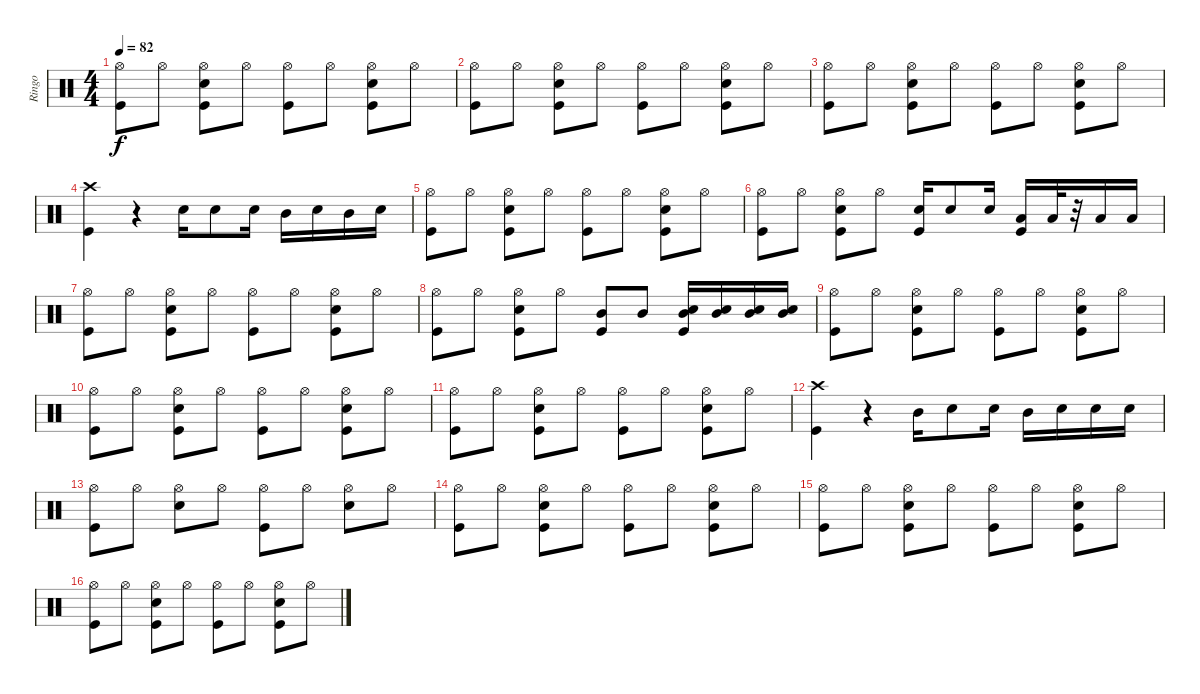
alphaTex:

\track ("Ringo" "Ringo") {instrument percussion}
\staff {score}
\articulation defaults
\ts (4 4)
\tempo 82
\clef neutral
\ks c
("Hi-Hat (open)" "Kick (hit)").8{dy f} "Hi-Hat (open)".8 ("Electric Snare (hit)" "Hi-Hat (open)" "Kick (hit)").8 "Hi-Hat (open)".8 ("Hi-Hat (open)" "Kick (hit)").8 "Hi-Hat (open)".8 ("Hi-Hat (open)" "Electric Snare (hit)" "Kick (hit)").8 "Hi-Hat (open)".8 |
("Hi-Hat (open)" "Kick (hit)").8 "Hi-Hat (open)".8 ("Electric Snare (hit)" "Hi-Hat (open)" "Kick (hit)").8 "Hi-Hat (open)".8 ("Hi-Hat (open)" "Kick (hit)").8 "Hi-Hat (open)".8 ("Hi-Hat (open)" "Electric Snare (hit)" "Kick (hit)").8 "Hi-Hat (open)".8 |
("Hi-Hat (open)" "Kick (hit)").8 "Hi-Hat (open)".8 ("Electric Snare (hit)" "Hi-Hat (open)" "Kick (hit)").8 "Hi-Hat (open)".8 ("Hi-Hat (open)" "Kick (hit)").8 "Hi-Hat (open)".8 ("Hi-Hat (open)" "Electric Snare (hit)" "Kick (hit)").8 "Hi-Hat (open)".8 |
("Crash high (hit)" "Kick (hit)").4 r.4 "Electric Snare (hit)".16 "Electric Snare (hit)".8 "Electric Snare (hit)".16 "Mid Tom (hit)".16 "Electric Snare (hit)".16 "Mid Tom (hit)".16 "Electric Snare (hit)".16 |
("Hi-Hat (open)" "Kick (hit)").8 "Hi-Hat (open)".8 ("Electric Snare (hit)" "Hi-Hat (open)" "Kick (hit)").8 "Hi-Hat (open)".8 ("Hi-Hat (open)" "Kick (hit)").8 "Hi-Hat (open)".8 ("Hi-Hat (open)" "Electric Snare (hit)" "Kick (hit)").8 "Hi-Hat (open)".8 |
("Hi-Hat (open)" "Kick (hit)").8 "Hi-Hat (open)".8 ("Electric Snare (hit)" "Hi-Hat (open)" "Kick (hit)").8 "Hi-Hat (open)".8 ("Electric Snare (hit)" "Kick (hit)").16 "Electric Snare (hit)".8 "Electric Snare (hit)".16 ("Kick (hit)" "Low Floor Tom (hit)").16 "Low Floor Tom (hit)".32 r.32 "Low Floor Tom (hit)".16 "Low Floor Tom (hit)".16 |
("Kick (hit)" "Hi-Hat (open)").8 "Hi-Hat (open)".8 ("Electric Snare (hit)" "Kick (hit)" "Hi-Hat (open)").8 "Hi-Hat (open)".8 ("Kick (hit)" "Hi-Hat (open)").8 "Hi-Hat (open)".8 ("Electric Snare (hit)" "Kick (hit)" "Hi-Hat (open)").8 "Hi-Hat (open)".8 |
("Kick (hit)" "Hi-Hat (open)").8 "Hi-Hat (open)".8 ("Electric Snare (hit)" "Kick (hit)" "Hi-Hat (open)").8 "Hi-Hat (open)".8 ("Mid Tom (hit)" "Kick (hit)").8 "Mid Tom (hit)".8 ("Electric Snare (hit)" "Mid Tom (hit)" "Kick (hit)").16 ("Electric Snare (hit)" "Mid Tom (hit)").16 ("Electric Snare (hit)" "Mid Tom (hit)").16 ("Electric Snare (hit)" "Mid Tom (hit)").16 |
("Kick (hit)" "Hi-Hat (open)").8 "Hi-Hat (open)".8 ("Electric Snare (hit)" "Kick (hit)" "Hi-Hat (open)").8 "Hi-Hat (open)".8 ("Kick (hit)" "Hi-Hat (open)").8 "Hi-Hat (open)".8 ("Electric Snare (hit)" "Kick (hit)" "Hi-Hat (open)").8 "Hi-Hat (open)".8 |
("Kick (hit)" "Hi-Hat (open)").8 "Hi-Hat (open)".8 ("Electric Snare (hit)" "Kick (hit)" "Hi-Hat (open)").8 "Hi-Hat (open)".8 ("Kick (hit)" "Hi-Hat (open)").8 "Hi-Hat (open)".8 ("Electric Snare (hit)" "Kick (hit)" "Hi-Hat (open)").8 "Hi-Hat (open)".8 |
("Kick (hit)" "Hi-Hat (open)").8 "Hi-Hat (open)".8 ("Electric Snare (hit)" "Kick (hit)" "Hi-Hat (open)").8 "Hi-Hat (open)".8 ("Kick (hit)" "Hi-Hat (open)").8 "Hi-Hat (open)".8 ("Electric Snare (hit)" "Kick (hit)" "Hi-Hat (open)").8 "Hi-Hat (open)".8 |
("Crash high (hit)" "Kick (hit)").4 r.4 "Mid Tom (hit)".16 "Electric Snare (hit)".8 "Electric Snare (hit)".16 "Mid Tom (hit)".16 "Electric Snare (hit)".16 "Electric Snare (hit)".16 "Electric Snare (hit)".16 |
("Kick (hit)" "Hi-Hat (open)").8 "Hi-Hat (open)".8 ("Electric Snare (hit)" "Hi-Hat (open)").8 "Hi-Hat (open)".8 ("Kick (hit)" "Hi-Hat (open)").8 "Hi-Hat (open)".8 ("Electric Snare (hit)" "Hi-Hat (open)").8 "Hi-Hat (open)".8 |
("Hi-Hat (open)" "Kick (hit)").8 "Hi-Hat (open)".8 ("Electric Snare (hit)" "Hi-Hat (open)" "Kick (hit)").8 "Hi-Hat (open)".8 ("Hi-Hat (open)" "Kick (hit)").8 "Hi-Hat (open)".8 ("Hi-Hat (open)" "Electric Snare (hit)" "Kick (hit)").8 "Hi-Hat (open)".8 |
("Hi-Hat (open)" "Kick (hit)").8 "Hi-Hat (open)".8 ("Electric Snare (hit)" "Hi-Hat (open)" "Kick (hit)").8 "Hi-Hat (open)".8 ("Hi-Hat (open)" "Kick (hit)").8 "Hi-Hat (open)".8 ("Hi-Hat (open)" "Electric Snare (hit)" "Kick (hit)").8 "Hi-Hat (open)".8 |
("Hi-Hat (open)" "Kick (hit)").8 "Hi-Hat (open)".8 ("Electric Snare (hit)" "Hi-Hat (open)" "Kick (hit)").8 "Hi-Hat (open)".8 ("Hi-Hat (open)" "Kick (hit)").8 "Hi-Hat (open)".8 ("Hi-Hat (open)" "Electric Snare (hit)" "Kick (hit)").8 "Hi-Hat (open)".8
